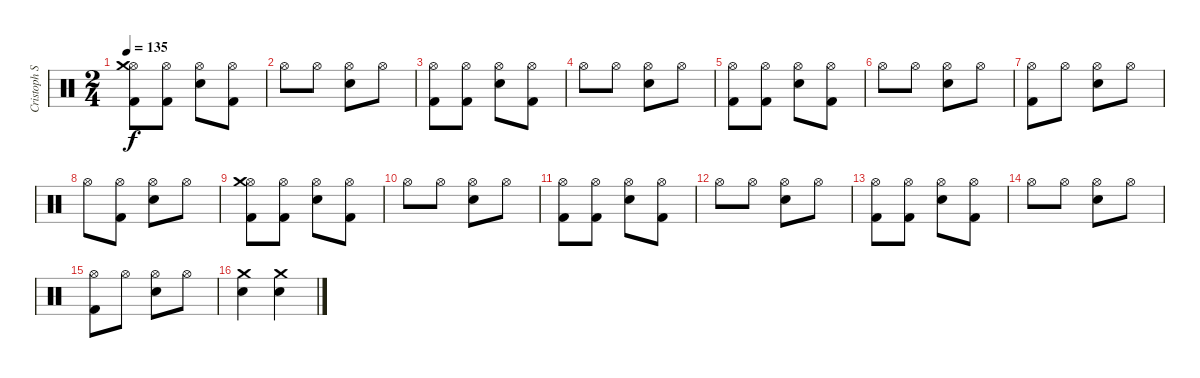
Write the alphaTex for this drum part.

\track ("Cristoph Schneider / Drums" "Cristoph S") {instrument percussion}
\staff {score}
\articulation defaults
\ts (2 4)
\tempo 135
\clef neutral
\ks c
("Hi-Hat (open)" "Kick (hit) 2" "Crash medium (hit)").8{dy f} ("Hi-Hat (open)" "Kick (hit) 2").8 ("Hi-Hat (open)" "Electric Snare (hit)").8 ("Kick (hit) 2" "Hi-Hat (open)").8 |
"Hi-Hat (open)".8 "Hi-Hat (open)".8 ("Electric Snare (hit)" "Hi-Hat (open)").8 "Hi-Hat (open)".8 |
("Hi-Hat (open)" "Kick (hit) 2").8 ("Hi-Hat (open)" "Kick (hit) 2").8 ("Hi-Hat (open)" "Electric Snare (hit)").8 ("Hi-Hat (open)" "Kick (hit) 2").8 |
"Hi-Hat (open)".8 "Hi-Hat (open)".8 ("Electric Snare (hit)" "Hi-Hat (open)").8 "Hi-Hat (open)".8 |
("Hi-Hat (open)" "Kick (hit) 2").8 ("Hi-Hat (open)" "Kick (hit) 2").8 ("Hi-Hat (open)" "Electric Snare (hit)").8 ("Hi-Hat (open)" "Kick (hit) 2").8 |
"Hi-Hat (open)".8 "Hi-Hat (open)".8 ("Hi-Hat (open)" "Electric Snare (hit)").8 "Hi-Hat (open)".8 |
("Kick (hit) 2" "Hi-Hat (open)").8 "Hi-Hat (open)".8 ("Hi-Hat (open)" "Electric Snare (hit)").8 "Hi-Hat (open)".8 |
"Hi-Hat (open)".8 ("Hi-Hat (open)" "Kick (hit) 2").8 ("Hi-Hat (open)" "Electric Snare (hit)").8 "Hi-Hat (open)".8 |
("Hi-Hat (open)" "Kick (hit) 2" "Crash medium (hit)").8 ("Hi-Hat (open)" "Kick (hit) 2").8 ("Hi-Hat (open)" "Electric Snare (hit)").8 ("Kick (hit) 2" "Hi-Hat (open)").8 |
"Hi-Hat (open)".8 "Hi-Hat (open)".8 ("Electric Snare (hit)" "Hi-Hat (open)").8 "Hi-Hat (open)".8 |
("Hi-Hat (open)" "Kick (hit) 2").8 ("Hi-Hat (open)" "Kick (hit) 2").8 ("Hi-Hat (open)" "Electric Snare (hit)").8 ("Hi-Hat (open)" "Kick (hit) 2").8 |
"Hi-Hat (open)".8 "Hi-Hat (open)".8 ("Electric Snare (hit)" "Hi-Hat (open)").8 "Hi-Hat (open)".8 |
("Hi-Hat (open)" "Kick (hit) 2").8 ("Hi-Hat (open)" "Kick (hit) 2").8 ("Hi-Hat (open)" "Electric Snare (hit)").8 ("Hi-Hat (open)" "Kick (hit) 2").8 |
"Hi-Hat (open)".8 "Hi-Hat (open)".8 ("Hi-Hat (open)" "Electric Snare (hit)").8 "Hi-Hat (open)".8 |
("Kick (hit) 2" "Hi-Hat (open)").8 "Hi-Hat (open)".8 ("Hi-Hat (open)" "Electric Snare (hit)").8 "Hi-Hat (open)".8 |
("Crash medium (hit)" "Electric Snare (hit)").4 ("Crash medium (hit)" "Electric Snare (hit)").4
